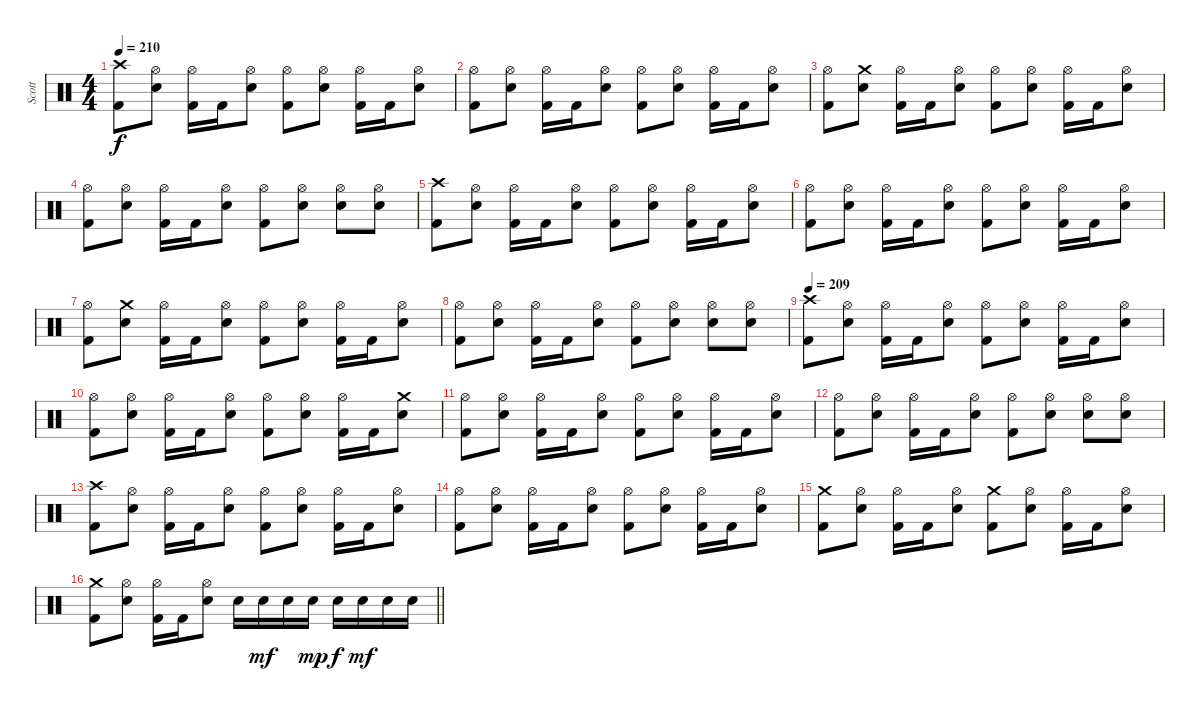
\track ("Scott" "Scott") {instrument percussion}
\staff {score}
\articulation defaults
\ts (4 4)
\section ("" "")
\tempo 210
\clef neutral
\ks c
("Crash high (hit)" "Kick (hit) 2").8{dy f} ("Hi-Hat (open)" "Electric Snare (hit)").8 ("Hi-Hat (open)" "Kick (hit) 2").16 "Kick (hit) 2".16 ("Hi-Hat (open)" "Electric Snare (hit)").8 ("Hi-Hat (open)" "Kick (hit) 2").8 ("Hi-Hat (open)" "Electric Snare (hit)").8 ("Hi-Hat (open)" "Kick (hit) 2").16 "Kick (hit) 2".16 ("Hi-Hat (open)" "Electric Snare (hit)").8 |
("Hi-Hat (open)" "Kick (hit) 2").8 ("Hi-Hat (open)" "Electric Snare (hit)").8 ("Hi-Hat (open)" "Kick (hit) 2").16 "Kick (hit) 2".16 ("Hi-Hat (open)" "Electric Snare (hit)").8 ("Hi-Hat (open)" "Kick (hit) 2").8 ("Hi-Hat (open)" "Electric Snare (hit)").8 ("Hi-Hat (open)" "Kick (hit) 2").16 "Kick (hit) 2".16 ("Hi-Hat (open)" "Electric Snare (hit)").8 |
("Hi-Hat (open)" "Kick (hit) 2").8 ("Crash medium (hit)" "Electric Snare (hit)").8 ("Hi-Hat (open)" "Kick (hit) 2").16 "Kick (hit) 2".16 ("Hi-Hat (open)" "Electric Snare (hit)").8 ("Hi-Hat (open)" "Kick (hit) 2").8 ("Hi-Hat (open)" "Electric Snare (hit)").8 ("Hi-Hat (open)" "Kick (hit) 2").16 "Kick (hit) 2".16 ("Hi-Hat (open)" "Electric Snare (hit)").8 |
("Hi-Hat (open)" "Kick (hit) 2").8 ("Hi-Hat (open)" "Electric Snare (hit)").8 ("Hi-Hat (open)" "Kick (hit) 2").16 "Kick (hit) 2".16 ("Hi-Hat (open)" "Electric Snare (hit)").8 ("Hi-Hat (open)" "Kick (hit) 2").8 ("Hi-Hat (open)" "Electric Snare (hit)").8 ("Hi-Hat (open)" "Electric Snare (hit)").8 ("Hi-Hat (open)" "Electric Snare (hit)").8 |
("Crash high (hit)" "Kick (hit) 2").8 ("Hi-Hat (open)" "Electric Snare (hit)").8 ("Hi-Hat (open)" "Kick (hit) 2").16 "Kick (hit) 2".16 ("Hi-Hat (open)" "Electric Snare (hit)").8 ("Hi-Hat (open)" "Kick (hit) 2").8 ("Hi-Hat (open)" "Electric Snare (hit)").8 ("Hi-Hat (open)" "Kick (hit) 2").16 "Kick (hit) 2".16 ("Hi-Hat (open)" "Electric Snare (hit)").8 |
("Hi-Hat (open)" "Kick (hit) 2").8 ("Hi-Hat (open)" "Electric Snare (hit)").8 ("Hi-Hat (open)" "Kick (hit) 2").16 "Kick (hit) 2".16 ("Hi-Hat (open)" "Electric Snare (hit)").8 ("Hi-Hat (open)" "Kick (hit) 2").8 ("Hi-Hat (open)" "Electric Snare (hit)").8 ("Hi-Hat (open)" "Kick (hit) 2").16 "Kick (hit) 2".16 ("Hi-Hat (open)" "Electric Snare (hit)").8 |
("Hi-Hat (open)" "Kick (hit) 2").8 ("Crash medium (hit)" "Electric Snare (hit)").8 ("Hi-Hat (open)" "Kick (hit) 2").16 "Kick (hit) 2".16 ("Hi-Hat (open)" "Electric Snare (hit)").8 ("Hi-Hat (open)" "Kick (hit) 2").8 ("Hi-Hat (open)" "Electric Snare (hit)").8 ("Hi-Hat (open)" "Kick (hit) 2").16 "Kick (hit) 2".16 ("Hi-Hat (open)" "Electric Snare (hit)").8 |
("Hi-Hat (open)" "Kick (hit) 2").8 ("Hi-Hat (open)" "Electric Snare (hit)").8 ("Hi-Hat (open)" "Kick (hit) 2").16 "Kick (hit) 2".16 ("Hi-Hat (open)" "Electric Snare (hit)").8 ("Hi-Hat (open)" "Kick (hit) 2").8 ("Hi-Hat (open)" "Electric Snare (hit)").8 ("Hi-Hat (open)" "Electric Snare (hit)").8 ("Hi-Hat (open)" "Electric Snare (hit)").8 |
\tempo 209
("Crash high (hit)" "Kick (hit) 2").8 ("Hi-Hat (open)" "Electric Snare (hit)").8 ("Hi-Hat (open)" "Kick (hit) 2").16 "Kick (hit) 2".16 ("Hi-Hat (open)" "Electric Snare (hit)").8 ("Hi-Hat (open)" "Kick (hit) 2").8 ("Hi-Hat (open)" "Electric Snare (hit)").8 ("Hi-Hat (open)" "Kick (hit) 2").16 "Kick (hit) 2".16 ("Hi-Hat (open)" "Electric Snare (hit)").8 |
("Hi-Hat (open)" "Kick (hit) 2").8 ("Hi-Hat (open)" "Electric Snare (hit)").8 ("Hi-Hat (open)" "Kick (hit) 2").16 "Kick (hit) 2".16 ("Hi-Hat (open)" "Electric Snare (hit)").8 ("Hi-Hat (open)" "Kick (hit) 2").8 ("Hi-Hat (open)" "Electric Snare (hit)").8 ("Hi-Hat (open)" "Kick (hit) 2").16 "Kick (hit) 2".16 ("Crash medium (hit)" "Electric Snare (hit)").8 |
("Hi-Hat (open)" "Kick (hit) 2").8 ("Hi-Hat (open)" "Electric Snare (hit)").8 ("Hi-Hat (open)" "Kick (hit) 2").16 "Kick (hit) 2".16 ("Hi-Hat (open)" "Electric Snare (hit)").8 ("Hi-Hat (open)" "Kick (hit) 2").8 ("Hi-Hat (open)" "Electric Snare (hit)").8 ("Hi-Hat (open)" "Kick (hit) 2").16 "Kick (hit) 2".16 ("Hi-Hat (open)" "Electric Snare (hit)").8 |
("Hi-Hat (open)" "Kick (hit) 2").8 ("Hi-Hat (open)" "Electric Snare (hit)").8 ("Hi-Hat (open)" "Kick (hit) 2").16 "Kick (hit) 2".16 ("Hi-Hat (open)" "Electric Snare (hit)").8 ("Hi-Hat (open)" "Kick (hit) 2").8 ("Hi-Hat (open)" "Electric Snare (hit)").8 ("Hi-Hat (open)" "Electric Snare (hit)").8 ("Hi-Hat (open)" "Electric Snare (hit)").8 |
("Crash high (hit)" "Kick (hit) 2").8 ("Hi-Hat (open)" "Electric Snare (hit)").8 ("Hi-Hat (open)" "Kick (hit) 2").16 "Kick (hit) 2".16 ("Hi-Hat (open)" "Electric Snare (hit)").8 ("Hi-Hat (open)" "Kick (hit) 2").8 ("Hi-Hat (open)" "Electric Snare (hit)").8 ("Hi-Hat (open)" "Kick (hit) 2").16 "Kick (hit) 2".16 ("Hi-Hat (open)" "Electric Snare (hit)").8 |
("Hi-Hat (open)" "Kick (hit) 2").8 ("Hi-Hat (open)" "Electric Snare (hit)").8 ("Hi-Hat (open)" "Kick (hit) 2").16 "Kick (hit) 2".16 ("Hi-Hat (open)" "Electric Snare (hit)").8 ("Hi-Hat (open)" "Kick (hit) 2").8 ("Hi-Hat (open)" "Electric Snare (hit)").8 ("Hi-Hat (open)" "Kick (hit) 2").16 "Kick (hit) 2".16 ("Hi-Hat (open)" "Electric Snare (hit)").8 |
("Crash medium (hit)" "Kick (hit) 2").8 ("Hi-Hat (open)" "Electric Snare (hit)").8 ("Hi-Hat (open)" "Kick (hit) 2").16 "Kick (hit) 2".16 ("Hi-Hat (open)" "Electric Snare (hit)").8 ("Crash medium (hit)" "Kick (hit) 2").8 ("Hi-Hat (open)" "Electric Snare (hit)").8 ("Hi-Hat (open)" "Kick (hit) 2").16 "Kick (hit) 2".16 ("Hi-Hat (open)" "Electric Snare (hit)").8 |
\barLineRight lightlight
("Crash medium (hit)" "Kick (hit) 2").8 ("Hi-Hat (open)" "Electric Snare (hit)").8 ("Hi-Hat (open)" "Kick (hit) 2").16 "Kick (hit) 2".16 ("Hi-Hat (open)" "Electric Snare (hit)").8 "Electric Snare (hit)".16 "Electric Snare (hit)".16{dy mf} "Electric Snare (hit)".16 "Electric Snare (hit)".16{dy mp} "Electric Snare (hit)".16{dy f} "Electric Snare (hit)".16{dy mf} "Electric Snare (hit)".16 "Electric Snare (hit)".16
